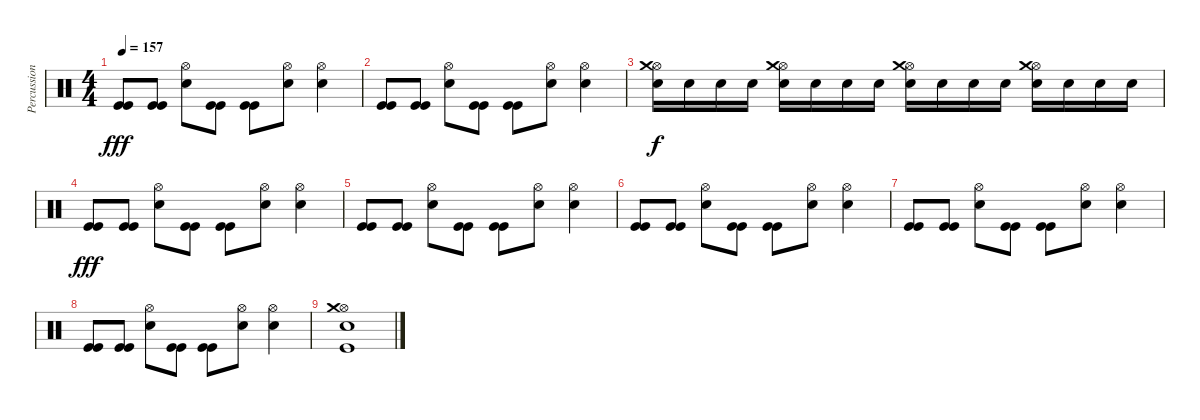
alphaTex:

\track ("Percussions" "Percussion") {instrument percussion}
\staff {score}
\articulation defaults
\ts (4 4)
\tempo 157
\clef neutral
\ks c
("Kick (hit)" "Kick (hit)").8{dy fff} ("Kick (hit)" "Kick (hit)").8 ("Snare (hit) 2" "Hi-Hat (open)").8 ("Kick (hit)" "Kick (hit)").8 ("Kick (hit)" "Kick (hit)").8 ("Snare (hit) 2" "Hi-Hat (open)").8 ("Snare (hit) 2" "Hi-Hat (open)").4 |
("Kick (hit)" "Kick (hit)").8 ("Kick (hit)" "Kick (hit)").8 ("Snare (hit) 2" "Hi-Hat (open)").8 ("Kick (hit)" "Kick (hit)").8 ("Kick (hit)" "Kick (hit)").8 ("Snare (hit) 2" "Hi-Hat (open)").8 ("Snare (hit) 2" "Hi-Hat (open)").4 |
("Snare (hit) 2" "Hi-Hat (open)" "Crash medium (hit)").16{dy f} "Snare (hit) 2".16 "Snare (hit) 2".16 "Snare (hit) 2".16 ("Snare (hit) 2" "Hi-Hat (open)" "Crash medium (hit)").16 "Snare (hit) 2".16 "Snare (hit) 2".16 "Snare (hit) 2".16 ("Snare (hit) 2" "Hi-Hat (open)" "Crash medium (hit)").16 "Snare (hit) 2".16 "Snare (hit) 2".16 "Snare (hit) 2".16 ("Snare (hit) 2" "Hi-Hat (open)" "Crash medium (hit)").16 "Snare (hit) 2".16 "Snare (hit) 2".16 "Snare (hit) 2".16 |
("Kick (hit)" "Kick (hit)").8{dy fff} ("Kick (hit)" "Kick (hit)").8 ("Snare (hit) 2" "Hi-Hat (open)").8 ("Kick (hit)" "Kick (hit)").8 ("Kick (hit)" "Kick (hit)").8 ("Snare (hit) 2" "Hi-Hat (open)").8 ("Snare (hit) 2" "Hi-Hat (open)").4 |
("Kick (hit)" "Kick (hit)").8 ("Kick (hit)" "Kick (hit)").8 ("Snare (hit) 2" "Hi-Hat (open)").8 ("Kick (hit)" "Kick (hit)").8 ("Kick (hit)" "Kick (hit)").8 ("Snare (hit) 2" "Hi-Hat (open)").8 ("Snare (hit) 2" "Hi-Hat (open)").4 |
("Kick (hit)" "Kick (hit)").8 ("Kick (hit)" "Kick (hit)").8 ("Snare (hit) 2" "Hi-Hat (open)").8 ("Kick (hit)" "Kick (hit)").8 ("Kick (hit)" "Kick (hit)").8 ("Snare (hit) 2" "Hi-Hat (open)").8 ("Snare (hit) 2" "Hi-Hat (open)").4 |
("Kick (hit)" "Kick (hit)").8 ("Kick (hit)" "Kick (hit)").8 ("Snare (hit) 2" "Hi-Hat (open)").8 ("Kick (hit)" "Kick (hit)").8 ("Kick (hit)" "Kick (hit)").8 ("Snare (hit) 2" "Hi-Hat (open)").8 ("Snare (hit) 2" "Hi-Hat (open)").4 |
("Kick (hit)" "Kick (hit)").8 ("Kick (hit)" "Kick (hit)").8 ("Snare (hit) 2" "Hi-Hat (open)").8 ("Kick (hit)" "Kick (hit)").8 ("Kick (hit)" "Kick (hit)").8 ("Snare (hit) 2" "Hi-Hat (open)").8 ("Snare (hit) 2" "Hi-Hat (open)").4 |
("Snare (hit) 2" "Hi-Hat (open)" "Crash medium (hit)" "Kick (hit)").1
